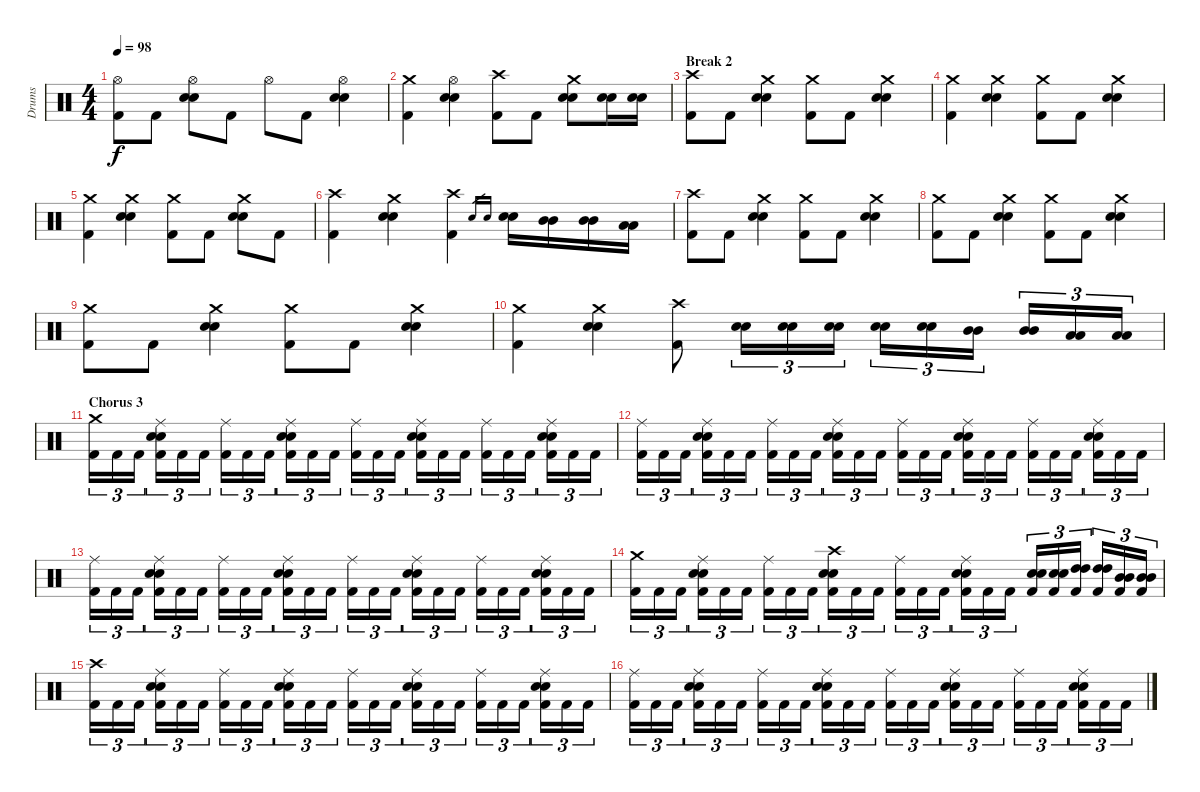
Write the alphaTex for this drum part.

\track ("Drums" "Drums") {instrument percussion}
\staff {score}
\articulation defaults
\ts (4 4)
\tempo 98
\clef neutral
\ks c
("Hi-Hat (open)" "Kick (hit) 2").8{dy f} "Kick (hit) 2".8 ("Hi-Hat (open)" "Snare (hit) 2" "Electric Snare (hit)").8 "Kick (hit) 2".8 "Hi-Hat (open)".8 "Kick (hit) 2".8 ("Hi-Hat (open)" "Snare (hit) 2" "Electric Snare (hit)").4 |
("Crash medium (hit)" "Kick (hit) 2").4 ("Hi-Hat (open)" "Snare (hit) 2" "Electric Snare (hit)").4 ("Crash high (hit)" "Kick (hit) 2").8 "Kick (hit) 2".8 ("Crash medium (hit)" "Snare (hit) 2" "Electric Snare (hit)").8 ("Snare (hit) 2" "Electric Snare (hit)").16 ("Snare (hit) 2" "Electric Snare (hit)").16 |
\section ("" "Break 2")
("Crash high (hit)" "Kick (hit) 2").8 "Kick (hit) 2".8 ("Crash medium (hit)" "Snare (hit) 2" "Electric Snare (hit)").4 ("Crash medium (hit)" "Kick (hit) 2").8 "Kick (hit) 2".8 ("Crash medium (hit)" "Snare (hit) 2" "Electric Snare (hit)").4 |
("Crash medium (hit)" "Kick (hit) 2").4 ("Crash medium (hit)" "Snare (hit) 2" "Electric Snare (hit)").4 ("Crash medium (hit)" "Kick (hit) 2").8 "Kick (hit) 2".8 ("Crash medium (hit)" "Snare (hit) 2" "Electric Snare (hit)").4 |
("Crash medium (hit)" "Kick (hit) 2").4 ("Crash medium (hit)" "Snare (hit) 2" "Electric Snare (hit)").4 ("Crash medium (hit)" "Kick (hit) 2").8 "Kick (hit) 2".8 ("Crash medium (hit)" "Snare (hit) 2" "Electric Snare (hit)").8 "Kick (hit) 2".8 |
("Crash high (hit)" "Kick (hit) 2").4 ("Crash medium (hit)" "Snare (hit) 2" "Electric Snare (hit)").4 ("Crash high (hit)" "Kick (hit) 2").4 "Snare (hit) 2".16{gr} "Electric Snare (hit)".16{gr} ("Snare (hit) 2" "Electric Snare (hit)").16 ("Mid Tom (hit)" "Mid Tom (hit)").16 ("Mid Tom (hit)" "Mid Tom (hit)").16 ("Low Tom (hit)" "Low Tom (hit)").16 |
("Crash high (hit)" "Kick (hit) 2").8 "Kick (hit) 2".8 ("Crash medium (hit)" "Snare (hit) 2" "Electric Snare (hit)").4 ("Crash medium (hit)" "Kick (hit) 2").8 "Kick (hit) 2".8 ("Crash medium (hit)" "Snare (hit) 2" "Electric Snare (hit)").4 |
("Crash medium (hit)" "Kick (hit) 2").8 "Kick (hit) 2".8 ("Crash medium (hit)" "Snare (hit) 2" "Electric Snare (hit)").4 ("Crash medium (hit)" "Kick (hit) 2").8 "Kick (hit) 2".8 ("Crash medium (hit)" "Snare (hit) 2" "Electric Snare (hit)").4 |
("Crash medium (hit)" "Kick (hit) 2").8 "Kick (hit) 2".8 ("Crash medium (hit)" "Snare (hit) 2" "Electric Snare (hit)").4 ("Crash medium (hit)" "Kick (hit) 2").8 "Kick (hit) 2".8 ("Crash medium (hit)" "Snare (hit) 2" "Electric Snare (hit)").4 |
("Crash medium (hit)" "Kick (hit) 2").4 ("Crash medium (hit)" "Snare (hit) 2" "Electric Snare (hit)").4 ("Crash high (hit)" "Kick (hit) 2").8 ("Snare (hit) 2" "Electric Snare (hit)").16{tu (3 2)} ("Snare (hit) 2" "Electric Snare (hit)").16{tu (3 2)} ("Snare (hit) 2" "Electric Snare (hit)").16{tu (3 2)} ("Snare (hit) 2" "Electric Snare (hit)").16{tu (3 2)} ("Snare (hit) 2" "Electric Snare (hit)").16{tu (3 2)} ("Mid Tom (hit)" "Mid Tom (hit)").16{tu (3 2)} ("Mid Tom (hit)" "Mid Tom (hit)").16{tu (3 2)} ("Low Tom (hit)" "Low Tom (hit)").16{tu (3 2)} ("Low Tom (hit)" "Low Tom (hit)").16{tu (3 2)} |
\section ("" "Chorus 3")
("Crash medium (hit)" "Kick (hit) 2").16{tu (3 2)} "Kick (hit) 2".16{tu (3 2)} "Kick (hit) 2".16{tu (3 2)} ("Ride (middle)" "Snare (hit) 2" "Electric Snare (hit)" "Kick (hit) 2").16{tu (3 2)} "Kick (hit) 2".16{tu (3 2)} "Kick (hit) 2".16{tu (3 2)} ("Ride (middle)" "Kick (hit) 2").16{tu (3 2)} "Kick (hit) 2".16{tu (3 2)} "Kick (hit) 2".16{tu (3 2)} ("Ride (middle)" "Snare (hit) 2" "Electric Snare (hit)" "Kick (hit) 2").16{tu (3 2)} "Kick (hit) 2".16{tu (3 2)} "Kick (hit) 2".16{tu (3 2)} ("Ride (middle)" "Kick (hit) 2").16{tu (3 2)} "Kick (hit) 2".16{tu (3 2)} "Kick (hit) 2".16{tu (3 2)} ("Ride (middle)" "Snare (hit) 2" "Electric Snare (hit)" "Kick (hit) 2").16{tu (3 2)} "Kick (hit) 2".16{tu (3 2)} "Kick (hit) 2".16{tu (3 2)} ("Ride (middle)" "Kick (hit) 2").16{tu (3 2)} "Kick (hit) 2".16{tu (3 2)} "Kick (hit) 2".16{tu (3 2)} ("Ride (middle)" "Snare (hit) 2" "Electric Snare (hit)" "Kick (hit) 2").16{tu (3 2)} "Kick (hit) 2".16{tu (3 2)} "Kick (hit) 2".16{tu (3 2)} |
("Ride (middle)" "Kick (hit) 2").16{tu (3 2)} "Kick (hit) 2".16{tu (3 2)} "Kick (hit) 2".16{tu (3 2)} ("Ride (middle)" "Snare (hit) 2" "Electric Snare (hit)" "Kick (hit) 2").16{tu (3 2)} "Kick (hit) 2".16{tu (3 2)} "Kick (hit) 2".16{tu (3 2)} ("Ride (middle)" "Kick (hit) 2").16{tu (3 2)} "Kick (hit) 2".16{tu (3 2)} "Kick (hit) 2".16{tu (3 2)} ("Ride (middle)" "Snare (hit) 2" "Electric Snare (hit)" "Kick (hit) 2").16{tu (3 2)} "Kick (hit) 2".16{tu (3 2)} "Kick (hit) 2".16{tu (3 2)} ("Ride (middle)" "Kick (hit) 2").16{tu (3 2)} "Kick (hit) 2".16{tu (3 2)} "Kick (hit) 2".16{tu (3 2)} ("Ride (middle)" "Snare (hit) 2" "Electric Snare (hit)" "Kick (hit) 2").16{tu (3 2)} "Kick (hit) 2".16{tu (3 2)} "Kick (hit) 2".16{tu (3 2)} ("Ride (middle)" "Kick (hit) 2").16{tu (3 2)} "Kick (hit) 2".16{tu (3 2)} "Kick (hit) 2".16{tu (3 2)} ("Ride (middle)" "Snare (hit) 2" "Electric Snare (hit)" "Kick (hit) 2").16{tu (3 2)} "Kick (hit) 2".16{tu (3 2)} "Kick (hit) 2".16{tu (3 2)} |
("Ride (middle)" "Kick (hit) 2").16{tu (3 2)} "Kick (hit) 2".16{tu (3 2)} "Kick (hit) 2".16{tu (3 2)} ("Ride (middle)" "Snare (hit) 2" "Electric Snare (hit)" "Kick (hit) 2").16{tu (3 2)} "Kick (hit) 2".16{tu (3 2)} "Kick (hit) 2".16{tu (3 2)} ("Ride (middle)" "Kick (hit) 2").16{tu (3 2)} "Kick (hit) 2".16{tu (3 2)} "Kick (hit) 2".16{tu (3 2)} ("Ride (middle)" "Snare (hit) 2" "Electric Snare (hit)" "Kick (hit) 2").16{tu (3 2)} "Kick (hit) 2".16{tu (3 2)} "Kick (hit) 2".16{tu (3 2)} ("Ride (middle)" "Kick (hit) 2").16{tu (3 2)} "Kick (hit) 2".16{tu (3 2)} "Kick (hit) 2".16{tu (3 2)} ("Ride (middle)" "Snare (hit) 2" "Electric Snare (hit)" "Kick (hit) 2").16{tu (3 2)} "Kick (hit) 2".16{tu (3 2)} "Kick (hit) 2".16{tu (3 2)} ("Ride (middle)" "Kick (hit) 2").16{tu (3 2)} "Kick (hit) 2".16{tu (3 2)} "Kick (hit) 2".16{tu (3 2)} ("Ride (middle)" "Snare (hit) 2" "Electric Snare (hit)" "Kick (hit) 2").16{tu (3 2)} "Kick (hit) 2".16{tu (3 2)} "Kick (hit) 2".16{tu (3 2)} |
("Crash medium (hit)" "Kick (hit) 2").16{tu (3 2)} "Kick (hit) 2".16{tu (3 2)} "Kick (hit) 2".16{tu (3 2)} ("Ride (middle)" "Snare (hit) 2" "Electric Snare (hit)" "Kick (hit) 2").16{tu (3 2)} "Kick (hit) 2".16{tu (3 2)} "Kick (hit) 2".16{tu (3 2)} ("Ride (middle)" "Kick (hit) 2").16{tu (3 2)} "Kick (hit) 2".16{tu (3 2)} "Kick (hit) 2".16{tu (3 2)} ("Crash high (hit)" "Snare (hit) 2" "Electric Snare (hit)" "Kick (hit) 2").16{tu (3 2)} "Kick (hit) 2".16{tu (3 2)} "Kick (hit) 2".16{tu (3 2)} ("Ride (middle)" "Kick (hit) 2").16{tu (3 2)} "Kick (hit) 2".16{tu (3 2)} "Kick (hit) 2".16{tu (3 2)} ("Ride (middle)" "Snare (hit) 2" "Electric Snare (hit)" "Kick (hit) 2").16{tu (3 2)} "Kick (hit) 2".16{tu (3 2)} "Kick (hit) 2".16{tu (3 2)} ("Snare (hit) 2" "Electric Snare (hit)" "Kick (hit) 2").16{tu (3 2)} ("Snare (hit) 2" "Electric Snare (hit)" "Kick (hit) 2").16{tu (3 2)} ("High Tom (hit)" "High Tom (hit)" "Kick (hit) 2").16{tu (3 2)} ("High Tom (hit)" "High Tom (hit)" "Kick (hit) 2").16{tu (3 2)} ("Mid Tom (hit)" "Mid Tom (hit)" "Kick (hit) 2").16{tu (3 2)} ("Mid Tom (hit)" "Mid Tom (hit)" "Kick (hit) 2").16{tu (3 2)} |
("Crash high (hit)" "Kick (hit) 2").16{tu (3 2)} "Kick (hit) 2".16{tu (3 2)} "Kick (hit) 2".16{tu (3 2)} ("Ride (middle)" "Snare (hit) 2" "Electric Snare (hit)" "Kick (hit) 2").16{tu (3 2)} "Kick (hit) 2".16{tu (3 2)} "Kick (hit) 2".16{tu (3 2)} ("Ride (middle)" "Kick (hit) 2").16{tu (3 2)} "Kick (hit) 2".16{tu (3 2)} "Kick (hit) 2".16{tu (3 2)} ("Ride (middle)" "Snare (hit) 2" "Electric Snare (hit)" "Kick (hit) 2").16{tu (3 2)} "Kick (hit) 2".16{tu (3 2)} "Kick (hit) 2".16{tu (3 2)} ("Ride (middle)" "Kick (hit) 2").16{tu (3 2)} "Kick (hit) 2".16{tu (3 2)} "Kick (hit) 2".16{tu (3 2)} ("Ride (middle)" "Snare (hit) 2" "Electric Snare (hit)" "Kick (hit) 2").16{tu (3 2)} "Kick (hit) 2".16{tu (3 2)} "Kick (hit) 2".16{tu (3 2)} ("Ride (middle)" "Kick (hit) 2").16{tu (3 2)} "Kick (hit) 2".16{tu (3 2)} "Kick (hit) 2".16{tu (3 2)} ("Ride (middle)" "Snare (hit) 2" "Electric Snare (hit)" "Kick (hit) 2").16{tu (3 2)} "Kick (hit) 2".16{tu (3 2)} "Kick (hit) 2".16{tu (3 2)} |
("Ride (middle)" "Kick (hit) 2").16{tu (3 2)} "Kick (hit) 2".16{tu (3 2)} "Kick (hit) 2".16{tu (3 2)} ("Ride (middle)" "Snare (hit) 2" "Electric Snare (hit)" "Kick (hit) 2").16{tu (3 2)} "Kick (hit) 2".16{tu (3 2)} "Kick (hit) 2".16{tu (3 2)} ("Ride (middle)" "Kick (hit) 2").16{tu (3 2)} "Kick (hit) 2".16{tu (3 2)} "Kick (hit) 2".16{tu (3 2)} ("Ride (middle)" "Snare (hit) 2" "Electric Snare (hit)" "Kick (hit) 2").16{tu (3 2)} "Kick (hit) 2".16{tu (3 2)} "Kick (hit) 2".16{tu (3 2)} ("Ride (middle)" "Kick (hit) 2").16{tu (3 2)} "Kick (hit) 2".16{tu (3 2)} "Kick (hit) 2".16{tu (3 2)} ("Ride (middle)" "Snare (hit) 2" "Electric Snare (hit)" "Kick (hit) 2").16{tu (3 2)} "Kick (hit) 2".16{tu (3 2)} "Kick (hit) 2".16{tu (3 2)} ("Ride (middle)" "Kick (hit) 2").16{tu (3 2)} "Kick (hit) 2".16{tu (3 2)} "Kick (hit) 2".16{tu (3 2)} ("Ride (middle)" "Snare (hit) 2" "Electric Snare (hit)" "Kick (hit) 2").16{tu (3 2)} "Kick (hit) 2".16{tu (3 2)} "Kick (hit) 2".16{tu (3 2)}
